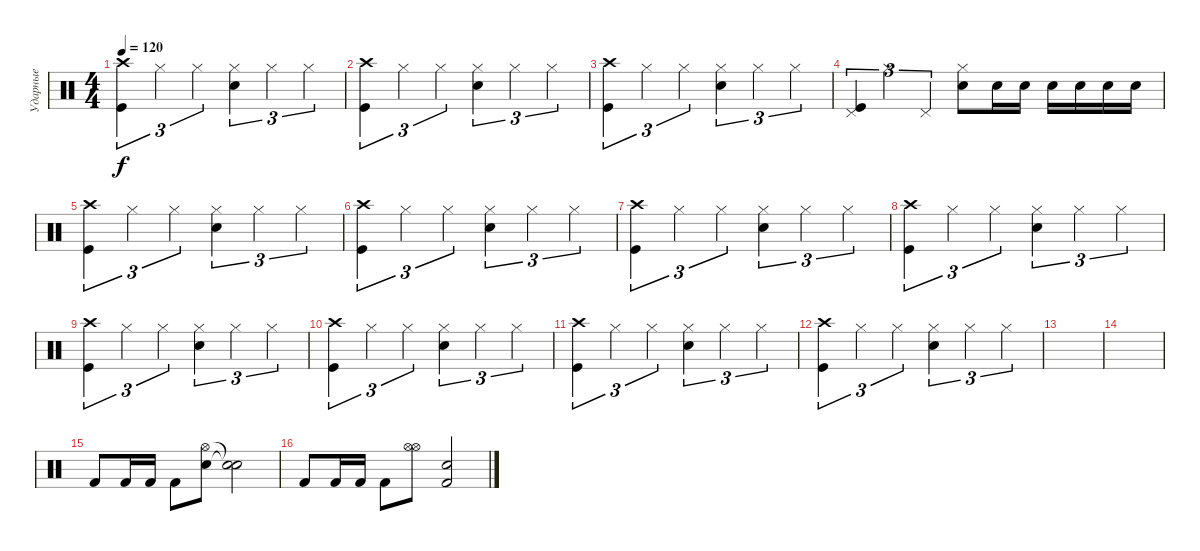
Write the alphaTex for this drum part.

\track ("Ударные" "Ударные") {instrument percussion}
\staff {score}
\articulation defaults
\ts (4 4)
\tempo 120
\clef neutral
\ks c
("Crash high (hit)" "Kick (hit)").4{tu (3 2) dy f} "Hi-Hat (closed)".4{tu (3 2)} "Hi-Hat (closed)".4{tu (3 2)} ("Hi-Hat (closed)" "Snare (hit) 2").4{tu (3 2)} "Hi-Hat (closed)".4{tu (3 2)} "Hi-Hat (closed)".4{tu (3 2)} |
("Crash high (hit)" "Kick (hit)").4{tu (3 2)} "Hi-Hat (closed)".4{tu (3 2)} "Hi-Hat (closed)".4{tu (3 2)} ("Hi-Hat (closed)" "Snare (hit) 2").4{tu (3 2)} "Hi-Hat (closed)".4{tu (3 2)} "Hi-Hat (closed)".4{tu (3 2)} |
("Crash high (hit)" "Kick (hit)").4{tu (3 2)} "Hi-Hat (closed)".4{tu (3 2)} "Hi-Hat (closed)".4{tu (3 2)} ("Hi-Hat (closed)" "Snare (hit) 2").4{tu (3 2)} "Hi-Hat (closed)".4{tu (3 2)} "Hi-Hat (closed)".4{tu (3 2)} |
("Pedal Hi-Hat (hit)" "Kick (hit)").4{tu (3 2)} "Hi-Hat (closed)".4{tu (3 2)} "Pedal Hi-Hat (hit)".4{tu (3 2)} ("Hi-Hat (closed)" "Snare (hit) 2").8 "Snare (hit) 2".16 "Snare (hit) 2".16 "Snare (hit) 2".16 "Snare (hit) 2".16 "Snare (hit) 2".16 "Snare (hit) 2".16 |
("Crash high (hit)" "Kick (hit)").4{tu (3 2)} "Hi-Hat (closed)".4{tu (3 2)} "Hi-Hat (closed)".4{tu (3 2)} ("Hi-Hat (closed)" "Snare (hit) 2").4{tu (3 2)} "Hi-Hat (closed)".4{tu (3 2)} "Hi-Hat (closed)".4{tu (3 2)} |
("Crash high (hit)" "Kick (hit)").4{tu (3 2)} "Hi-Hat (closed)".4{tu (3 2)} "Hi-Hat (closed)".4{tu (3 2)} ("Hi-Hat (closed)" "Snare (hit) 2").4{tu (3 2)} "Hi-Hat (closed)".4{tu (3 2)} "Hi-Hat (closed)".4{tu (3 2)} |
("Crash high (hit)" "Kick (hit)").4{tu (3 2)} "Hi-Hat (closed)".4{tu (3 2)} "Hi-Hat (closed)".4{tu (3 2)} ("Hi-Hat (closed)" "Snare (hit) 2").4{tu (3 2)} "Hi-Hat (closed)".4{tu (3 2)} "Hi-Hat (closed)".4{tu (3 2)} |
("Crash high (hit)" "Kick (hit)").4{tu (3 2)} "Hi-Hat (closed)".4{tu (3 2)} "Hi-Hat (closed)".4{tu (3 2)} ("Hi-Hat (closed)" "Snare (hit) 2").4{tu (3 2)} "Hi-Hat (closed)".4{tu (3 2)} "Hi-Hat (closed)".4{tu (3 2)} |
("Crash high (hit)" "Kick (hit)").4{tu (3 2)} "Hi-Hat (closed)".4{tu (3 2)} "Hi-Hat (closed)".4{tu (3 2)} ("Hi-Hat (closed)" "Snare (hit) 2").4{tu (3 2)} "Hi-Hat (closed)".4{tu (3 2)} "Hi-Hat (closed)".4{tu (3 2)} |
("Crash high (hit)" "Kick (hit)").4{tu (3 2)} "Hi-Hat (closed)".4{tu (3 2)} "Hi-Hat (closed)".4{tu (3 2)} ("Hi-Hat (closed)" "Snare (hit) 2").4{tu (3 2)} "Hi-Hat (closed)".4{tu (3 2)} "Hi-Hat (closed)".4{tu (3 2)} |
("Crash high (hit)" "Kick (hit)").4{tu (3 2)} "Hi-Hat (closed)".4{tu (3 2)} "Hi-Hat (closed)".4{tu (3 2)} ("Hi-Hat (closed)" "Snare (hit) 2").4{tu (3 2)} "Hi-Hat (closed)".4{tu (3 2)} "Hi-Hat (closed)".4{tu (3 2)} |
("Crash high (hit)" "Kick (hit)").4{tu (3 2)} "Hi-Hat (closed)".4{tu (3 2)} "Hi-Hat (closed)".4{tu (3 2)} ("Hi-Hat (closed)" "Snare (hit) 2").4{tu (3 2)} "Hi-Hat (closed)".4{tu (3 2)} "Hi-Hat (closed)".4{tu (3 2)} |
|
|
"Kick (hit) 2".8 "Kick (hit) 2".16 "Kick (hit) 2".16 "Kick (hit) 2".8 ("Electric Snare (hit)" "Hi-Hat (open)").8 ("Snare (hit)"{t} "Snare (hit)"{t}).2 |
"Kick (hit) 2".8 "Kick (hit) 2".16 "Kick (hit) 2".16 "Kick (hit) 2".8 ("Hi-Hat (open)" "Hi-Hat (open)").8 ("Electric Snare (hit)" "Kick (hit) 2").2
